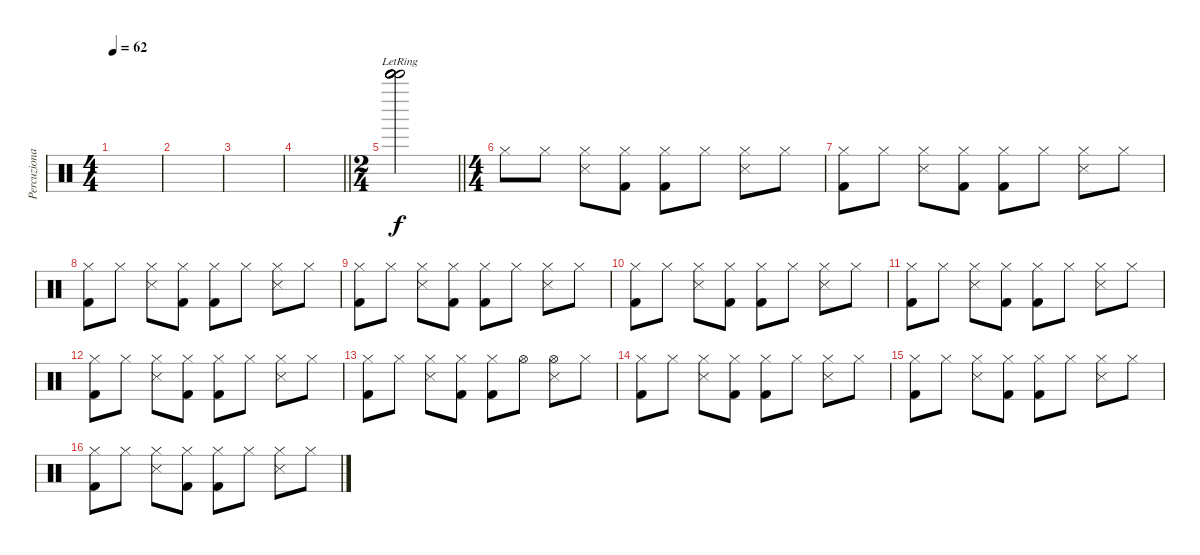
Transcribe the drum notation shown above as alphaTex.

\track ("Percuzionale" "Percuziona") {instrument percussion}
\staff {score}
\articulation defaults
\ts (4 4)
\tempo 62
\clef neutral
\ks c
|
|
|
\barLineRight lightlight
|
\ts (2 4)
\barLineRight lightlight
("Bell Tree (hit)"{lr} "Bell Tree (hit)" "Bell Tree (hit)" "Bell Tree (hit)" "Bell Tree (hit)" "Bell Tree (hit)").2 |
\ts (4 4)
"Hi-Hat (closed)".8 "Hi-Hat (closed)".8 ("Hi-Hat (closed)" "Snare (side stick) 3").8 ("Hi-Hat (closed)" "Kick (hit) 2").8 ("Hi-Hat (closed)" "Kick (hit) 2").8 "Hi-Hat (closed)".8 ("Hi-Hat (closed)" "Snare (side stick) 3").8 "Hi-Hat (closed)".8 |
("Hi-Hat (closed)" "Kick (hit) 2").8 "Hi-Hat (closed)".8 ("Hi-Hat (closed)" "Snare (side stick) 3").8 ("Hi-Hat (closed)" "Kick (hit) 2").8 ("Hi-Hat (closed)" "Kick (hit) 2").8 "Hi-Hat (closed)".8 ("Hi-Hat (closed)" "Snare (side stick) 3").8 "Hi-Hat (closed)".8 |
("Hi-Hat (closed)" "Kick (hit) 2").8 "Hi-Hat (closed)".8 ("Hi-Hat (closed)" "Snare (side stick) 3").8 ("Hi-Hat (closed)" "Kick (hit) 2").8 ("Hi-Hat (closed)" "Kick (hit) 2").8 "Hi-Hat (closed)".8 ("Hi-Hat (closed)" "Snare (side stick) 3").8 "Hi-Hat (closed)".8 |
("Hi-Hat (closed)" "Kick (hit) 2").8 "Hi-Hat (closed)".8 ("Hi-Hat (closed)" "Snare (side stick) 3").8 ("Hi-Hat (closed)" "Kick (hit) 2").8 ("Hi-Hat (closed)" "Kick (hit) 2").8 "Hi-Hat (closed)".8 ("Hi-Hat (closed)" "Snare (side stick) 3").8 "Hi-Hat (closed)".8 |
("Hi-Hat (closed)" "Kick (hit) 2").8 "Hi-Hat (closed)".8 ("Hi-Hat (closed)" "Snare (side stick) 3").8 ("Hi-Hat (closed)" "Kick (hit) 2").8 ("Hi-Hat (closed)" "Kick (hit) 2").8 "Hi-Hat (closed)".8 ("Hi-Hat (closed)" "Snare (side stick) 3").8 "Hi-Hat (closed)".8 |
("Hi-Hat (closed)" "Kick (hit) 2").8 "Hi-Hat (closed)".8 ("Hi-Hat (closed)" "Snare (side stick) 3").8 ("Hi-Hat (closed)" "Kick (hit) 2").8 ("Hi-Hat (closed)" "Kick (hit) 2").8 "Hi-Hat (closed)".8 ("Hi-Hat (closed)" "Snare (side stick) 3").8 "Hi-Hat (closed)".8 |
("Hi-Hat (closed)" "Kick (hit) 2").8 "Hi-Hat (closed)".8 ("Hi-Hat (closed)" "Snare (side stick) 3").8 ("Hi-Hat (closed)" "Kick (hit) 2").8 ("Hi-Hat (closed)" "Kick (hit) 2").8 "Hi-Hat (closed)".8 ("Hi-Hat (closed)" "Snare (side stick) 3").8 "Hi-Hat (closed)".8 |
("Hi-Hat (closed)" "Kick (hit) 2").8 "Hi-Hat (closed)".8 ("Hi-Hat (closed)" "Snare (side stick) 3").8 ("Hi-Hat (closed)" "Kick (hit) 2").8 ("Hi-Hat (closed)" "Kick (hit) 2").8 "Hi-Hat (open)".8 ("Hi-Hat (open)" "Snare (side stick) 3").8 "Hi-Hat (closed)".8 |
("Hi-Hat (closed)" "Kick (hit) 2").8 "Hi-Hat (closed)".8 ("Hi-Hat (closed)" "Snare (side stick) 3").8 ("Hi-Hat (closed)" "Kick (hit) 2").8 ("Hi-Hat (closed)" "Kick (hit) 2").8 "Hi-Hat (closed)".8 ("Hi-Hat (closed)" "Snare (side stick) 3").8 "Hi-Hat (closed)".8 |
("Hi-Hat (closed)" "Kick (hit) 2").8 "Hi-Hat (closed)".8 ("Hi-Hat (closed)" "Snare (side stick) 3").8 ("Hi-Hat (closed)" "Kick (hit) 2").8 ("Hi-Hat (closed)" "Kick (hit) 2").8 "Hi-Hat (closed)".8 ("Hi-Hat (closed)" "Snare (side stick) 3").8 "Hi-Hat (closed)".8 |
("Hi-Hat (closed)" "Kick (hit) 2").8 "Hi-Hat (closed)".8 ("Hi-Hat (closed)" "Snare (side stick) 3").8 ("Hi-Hat (closed)" "Kick (hit) 2").8 ("Hi-Hat (closed)" "Kick (hit) 2").8 "Hi-Hat (closed)".8 ("Hi-Hat (closed)" "Snare (side stick) 3").8 "Hi-Hat (closed)".8
